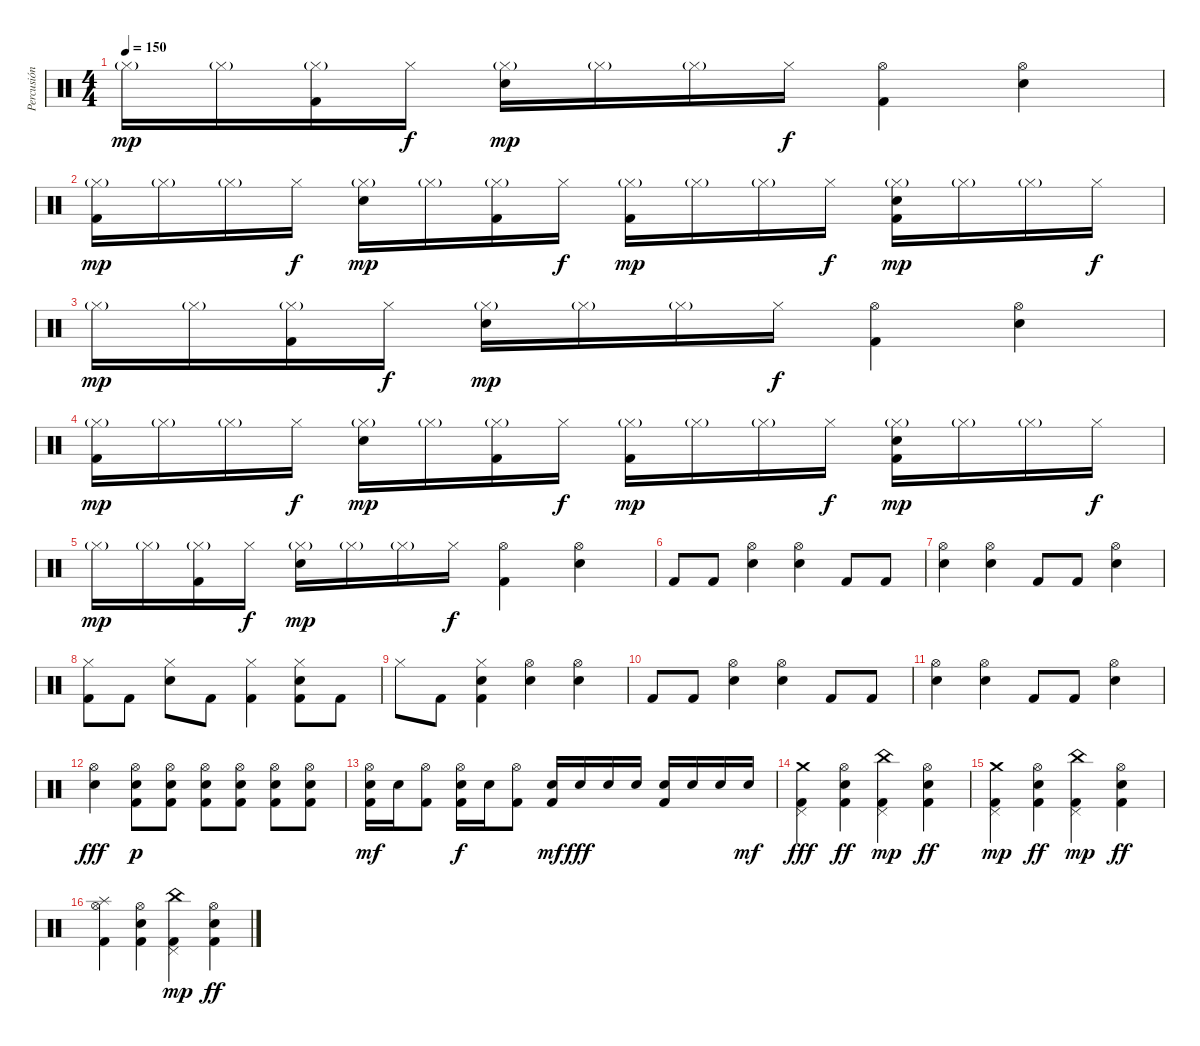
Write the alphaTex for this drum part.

\track ("Percusión" "Percusión") {instrument percussion}
\staff {score}
\articulation defaults
\ts (4 4)
\tempo 150
\clef neutral
\ks c "Hi-Hat (closed)"{g}.16{dy mp} "Hi-Hat (closed)"{g}.16
("Hi-Hat (closed)"{g} "Kick (hit) 2").16 "Hi-Hat (closed)".16{dy f} ("Hi-Hat (closed)"{g} "Electric Snare (hit)").16{dy mp} "Hi-Hat (closed)"{g}.16 "Hi-Hat (closed)"{g}.16 "Hi-Hat (closed)".16{dy f} ("Hi-Hat (open)" "Kick (hit) 2").4 ("Hi-Hat (open)" "Electric Snare (hit)").4 |
("Hi-Hat (closed)"{g} "Kick (hit) 2").16{dy mp} "Hi-Hat (closed)"{g}.16 "Hi-Hat (closed)"{g}.16 "Hi-Hat (closed)".16{dy f} ("Hi-Hat (closed)"{g} "Electric Snare (hit)").16{dy mp} "Hi-Hat (closed)"{g}.16 ("Hi-Hat (closed)"{g} "Kick (hit) 2").16 "Hi-Hat (closed)".16{dy f} ("Hi-Hat (closed)"{g} "Kick (hit) 2").16{dy mp} "Hi-Hat (closed)"{g}.16 "Hi-Hat (closed)"{g}.16 "Hi-Hat (closed)".16{dy f} ("Hi-Hat (closed)"{g} "Kick (hit) 2" "Electric Snare (hit)").16{dy mp} "Hi-Hat (closed)"{g}.16 "Hi-Hat (closed)"{g}.16 "Hi-Hat (closed)".16{dy f} |
"Hi-Hat (closed)"{g}.16{dy mp} "Hi-Hat (closed)"{g}.16 ("Hi-Hat (closed)"{g} "Kick (hit) 2").16 "Hi-Hat (closed)".16{dy f} ("Hi-Hat (closed)"{g} "Electric Snare (hit)").16{dy mp} "Hi-Hat (closed)"{g}.16 "Hi-Hat (closed)"{g}.16 "Hi-Hat (closed)".16{dy f} ("Hi-Hat (open)" "Kick (hit) 2").4 ("Hi-Hat (open)" "Electric Snare (hit)").4 |
("Hi-Hat (closed)"{g} "Kick (hit) 2").16{dy mp} "Hi-Hat (closed)"{g}.16 "Hi-Hat (closed)"{g}.16 "Hi-Hat (closed)".16{dy f} ("Hi-Hat (closed)"{g} "Electric Snare (hit)").16{dy mp} "Hi-Hat (closed)"{g}.16 ("Hi-Hat (closed)"{g} "Kick (hit) 2").16 "Hi-Hat (closed)".16{dy f} ("Hi-Hat (closed)"{g} "Kick (hit) 2").16{dy mp} "Hi-Hat (closed)"{g}.16 "Hi-Hat (closed)"{g}.16 "Hi-Hat (closed)".16{dy f} ("Hi-Hat (closed)"{g} "Kick (hit) 2" "Electric Snare (hit)").16{dy mp} "Hi-Hat (closed)"{g}.16 "Hi-Hat (closed)"{g}.16 "Hi-Hat (closed)".16{dy f} |
"Hi-Hat (closed)"{g}.16{dy mp} "Hi-Hat (closed)"{g}.16 ("Hi-Hat (closed)"{g} "Kick (hit) 2").16 "Hi-Hat (closed)".16{dy f} ("Hi-Hat (closed)"{g} "Electric Snare (hit)").16{dy mp} "Hi-Hat (closed)"{g}.16 "Hi-Hat (closed)"{g}.16 "Hi-Hat (closed)".16{dy f} ("Hi-Hat (open)" "Kick (hit) 2").4 ("Hi-Hat (open)" "Electric Snare (hit)").4 |
"Kick (hit) 2".8 "Kick (hit) 2".8 ("Hi-Hat (open)" "Electric Snare (hit)").4 ("Hi-Hat (open)" "Electric Snare (hit)").4 "Kick (hit) 2".8 "Kick (hit) 2".8 |
("Hi-Hat (open)" "Electric Snare (hit)").4 ("Hi-Hat (open)" "Electric Snare (hit)").4 "Kick (hit) 2".8 "Kick (hit) 2".8 ("Hi-Hat (open)" "Electric Snare (hit)").4 |
("Hi-Hat (closed)" "Kick (hit) 2").8 "Kick (hit) 2".8 ("Hi-Hat (closed)" "Electric Snare (hit)").8 "Kick (hit) 2".8 ("Hi-Hat (closed)" "Kick (hit) 2").4 ("Hi-Hat (closed)" "Kick (hit) 2" "Electric Snare (hit)").8 "Kick (hit) 2".8 |
"Hi-Hat (closed)".8 "Kick (hit) 2".8 ("Hi-Hat (closed)" "Kick (hit) 2" "Electric Snare (hit)").4 ("Hi-Hat (open)" "Electric Snare (hit)").4 ("Hi-Hat (open)" "Electric Snare (hit)").4 |
"Kick (hit) 2".8 "Kick (hit) 2".8 ("Hi-Hat (open)" "Electric Snare (hit)").4 ("Hi-Hat (open)" "Electric Snare (hit)").4 "Kick (hit) 2".8 "Kick (hit) 2".8 |
("Hi-Hat (open)" "Electric Snare (hit)").4 ("Hi-Hat (open)" "Electric Snare (hit)").4 "Kick (hit) 2".8 "Kick (hit) 2".8 ("Hi-Hat (open)" "Electric Snare (hit)").4 |
("Hi-Hat (open)" "Electric Snare (hit)").4{dy fff} ("Hi-Hat (open)" "Electric Snare (hit)" "Kick (hit) 2").8{dy p} ("Hi-Hat (open)" "Electric Snare (hit)" "Kick (hit) 2").8 ("Hi-Hat (open)" "Electric Snare (hit)" "Kick (hit) 2").8 ("Hi-Hat (open)" "Electric Snare (hit)" "Kick (hit) 2").8 ("Hi-Hat (open)" "Electric Snare (hit)" "Kick (hit) 2").8 ("Hi-Hat (open)" "Electric Snare (hit)" "Kick (hit) 2").8 |
("Hi-Hat (open)" "Electric Snare (hit)" "Kick (hit) 2").16{dy mf} "Electric Snare (hit)".16 ("Hi-Hat (open)" "Kick (hit) 2").8 ("Hi-Hat (open)" "Electric Snare (hit)" "Kick (hit) 2").16{dy f} "Electric Snare (hit)".16 ("Hi-Hat (open)" "Kick (hit) 2").8 ("Electric Snare (hit)" "Kick (hit) 2").16{dy mf} "Electric Snare (hit)".16{dy fff} "Electric Snare (hit)".16 "Electric Snare (hit)".16 ("Kick (hit) 2" "Electric Snare (hit)").16 "Electric Snare (hit)".16 "Electric Snare (hit)".16 "Electric Snare (hit)".16{dy mf} |
("Pedal Hi-Hat (hit)" "Kick (hit) 2" "Crash medium (hit)").4{dy fff} ("Hi-Hat (open)" "Kick (hit) 2" "Electric Snare (hit)").4{dy ff} ("China (hit)" "Kick (hit) 2" "Pedal Hi-Hat (hit)").4{dy mp} ("Hi-Hat (open)" "Kick (hit) 2" "Electric Snare (hit)").4{dy ff} |
("Crash medium (hit)" "Kick (hit) 2" "Pedal Hi-Hat (hit)").4{dy mp} ("Kick (hit) 2" "Electric Snare (hit)" "Hi-Hat (open)").4{dy ff} ("China (hit)" "Kick (hit) 2" "Pedal Hi-Hat (hit)").4{dy mp} ("Hi-Hat (open)" "Kick (hit) 2" "Electric Snare (hit)").4{dy ff} |
("Hi-Hat (open)" "Kick (hit) 2" "Splash (hit)").4 ("Hi-Hat (open)" "Kick (hit) 2" "Electric Snare (hit)").4 ("China (hit)" "Kick (hit) 2" "Pedal Hi-Hat (hit)").4{dy mp} ("Hi-Hat (open)" "Kick (hit) 2" "Electric Snare (hit)").4{dy ff}
